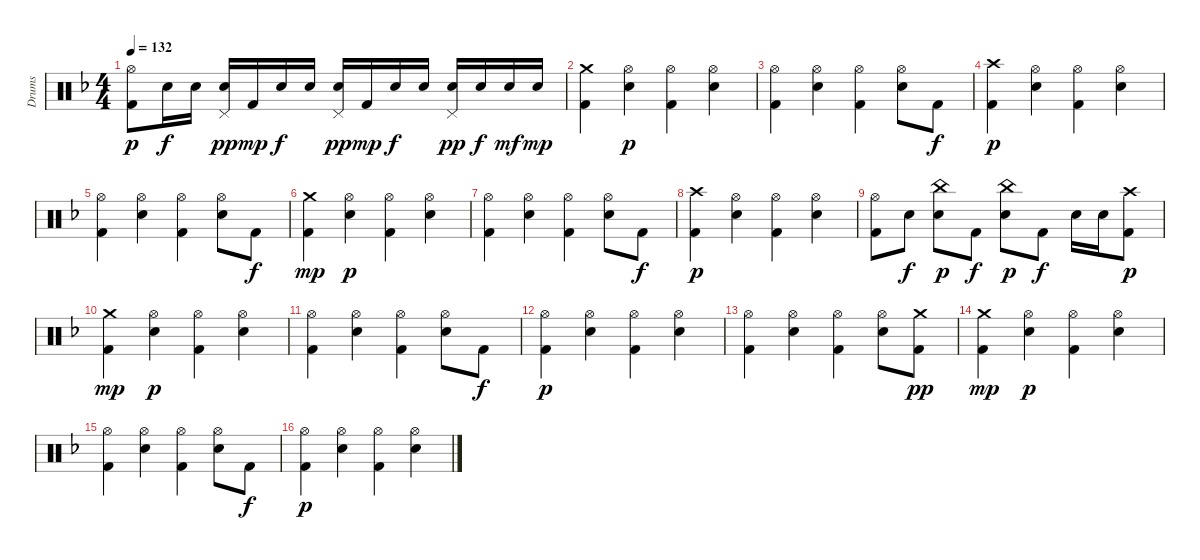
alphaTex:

\track ("Drums" "Drums") {instrument percussion}
\staff {score}
\articulation defaults
\ts (4 4)
\tempo 132
\clef neutral
\ks f
("Hi-Hat (open)" "Kick (hit) 2").8{dy p} "Electric Snare (hit)".16{dy f} "Electric Snare (hit)".16 ("Electric Snare (hit)" "Pedal Hi-Hat (hit)").16{dy pp} "Kick (hit) 2".16{dy mp} "Electric Snare (hit)".16{dy f} "Electric Snare (hit)".16 ("Electric Snare (hit)" "Pedal Hi-Hat (hit)").16{dy pp} "Kick (hit) 2".16{dy mp} "Electric Snare (hit)".16{dy f} "Electric Snare (hit)".16 ("Electric Snare (hit)" "Pedal Hi-Hat (hit)").16{dy pp} "Electric Snare (hit)".16{dy f} "Electric Snare (hit)".16{dy mf} "Electric Snare (hit)".16{dy mp} |
("Crash medium (hit)" "Kick (hit) 2").4 ("Hi-Hat (open)" "Electric Snare (hit)").4{dy p} ("Hi-Hat (open)" "Kick (hit) 2").4 ("Hi-Hat (open)" "Electric Snare (hit)").4 |
("Hi-Hat (open)" "Kick (hit) 2").4 ("Hi-Hat (open)" "Electric Snare (hit)").4 ("Hi-Hat (open)" "Kick (hit) 2").4 ("Hi-Hat (open)" "Electric Snare (hit)").8 "Kick (hit) 2".8{dy f} |
("Crash high (hit)" "Kick (hit) 2").4{dy p} ("Hi-Hat (open)" "Electric Snare (hit)").4 ("Hi-Hat (open)" "Kick (hit) 2").4 ("Hi-Hat (open)" "Electric Snare (hit)").4 |
("Hi-Hat (open)" "Kick (hit) 2").4 ("Hi-Hat (open)" "Electric Snare (hit)").4 ("Hi-Hat (open)" "Kick (hit) 2").4 ("Hi-Hat (open)" "Electric Snare (hit)").8 "Kick (hit) 2".8{dy f} |
("Crash medium (hit)" "Kick (hit) 2").4{dy mp} ("Hi-Hat (open)" "Electric Snare (hit)").4{dy p} ("Hi-Hat (open)" "Kick (hit) 2").4 ("Hi-Hat (open)" "Electric Snare (hit)").4 |
("Hi-Hat (open)" "Kick (hit) 2").4 ("Hi-Hat (open)" "Electric Snare (hit)").4 ("Hi-Hat (open)" "Kick (hit) 2").4 ("Hi-Hat (open)" "Electric Snare (hit)").8 "Kick (hit) 2".8{dy f} |
("Crash high (hit)" "Kick (hit) 2").4{dy p} ("Hi-Hat (open)" "Electric Snare (hit)").4 ("Hi-Hat (open)" "Kick (hit) 2").4 ("Hi-Hat (open)" "Electric Snare (hit)").4 |
("Hi-Hat (open)" "Kick (hit) 2").8 "Electric Snare (hit)".8{dy f} ("China (hit)" "Electric Snare (hit)").8{dy p} "Kick (hit) 2".8{dy f} ("China (hit)" "Electric Snare (hit)").8{dy p} "Kick (hit) 2".8{dy f} "Electric Snare (hit)".16 "Electric Snare (hit)".16 ("Kick (hit) 2" "Crash high (hit)").8{dy p} |
("Crash medium (hit)" "Kick (hit) 2").4{dy mp} ("Hi-Hat (open)" "Electric Snare (hit)").4{dy p} ("Hi-Hat (open)" "Kick (hit) 2").4 ("Hi-Hat (open)" "Electric Snare (hit)").4 |
("Hi-Hat (open)" "Kick (hit) 2").4 ("Hi-Hat (open)" "Electric Snare (hit)").4 ("Hi-Hat (open)" "Kick (hit) 2").4 ("Hi-Hat (open)" "Electric Snare (hit)").8 "Kick (hit) 2".8{dy f} |
("Hi-Hat (open)" "Kick (hit) 2").4{dy p} ("Hi-Hat (open)" "Electric Snare (hit)").4 ("Hi-Hat (open)" "Kick (hit) 2").4 ("Hi-Hat (open)" "Electric Snare (hit)").4 |
("Hi-Hat (open)" "Kick (hit) 2").4 ("Hi-Hat (open)" "Electric Snare (hit)").4 ("Hi-Hat (open)" "Kick (hit) 2").4 ("Hi-Hat (open)" "Electric Snare (hit)").8 ("Kick (hit) 2" "Crash medium (hit)").8{dy pp} |
("Crash medium (hit)" "Kick (hit) 2").4{dy mp} ("Hi-Hat (open)" "Electric Snare (hit)").4{dy p} ("Hi-Hat (open)" "Kick (hit) 2").4 ("Hi-Hat (open)" "Electric Snare (hit)").4 |
("Hi-Hat (open)" "Kick (hit) 2").4 ("Hi-Hat (open)" "Electric Snare (hit)").4 ("Hi-Hat (open)" "Kick (hit) 2").4 ("Hi-Hat (open)" "Electric Snare (hit)").8 "Kick (hit) 2".8{dy f} |
("Hi-Hat (open)" "Kick (hit) 2").4{dy p} ("Hi-Hat (open)" "Electric Snare (hit)").4 ("Hi-Hat (open)" "Kick (hit) 2").4 ("Hi-Hat (open)" "Electric Snare (hit)").4
